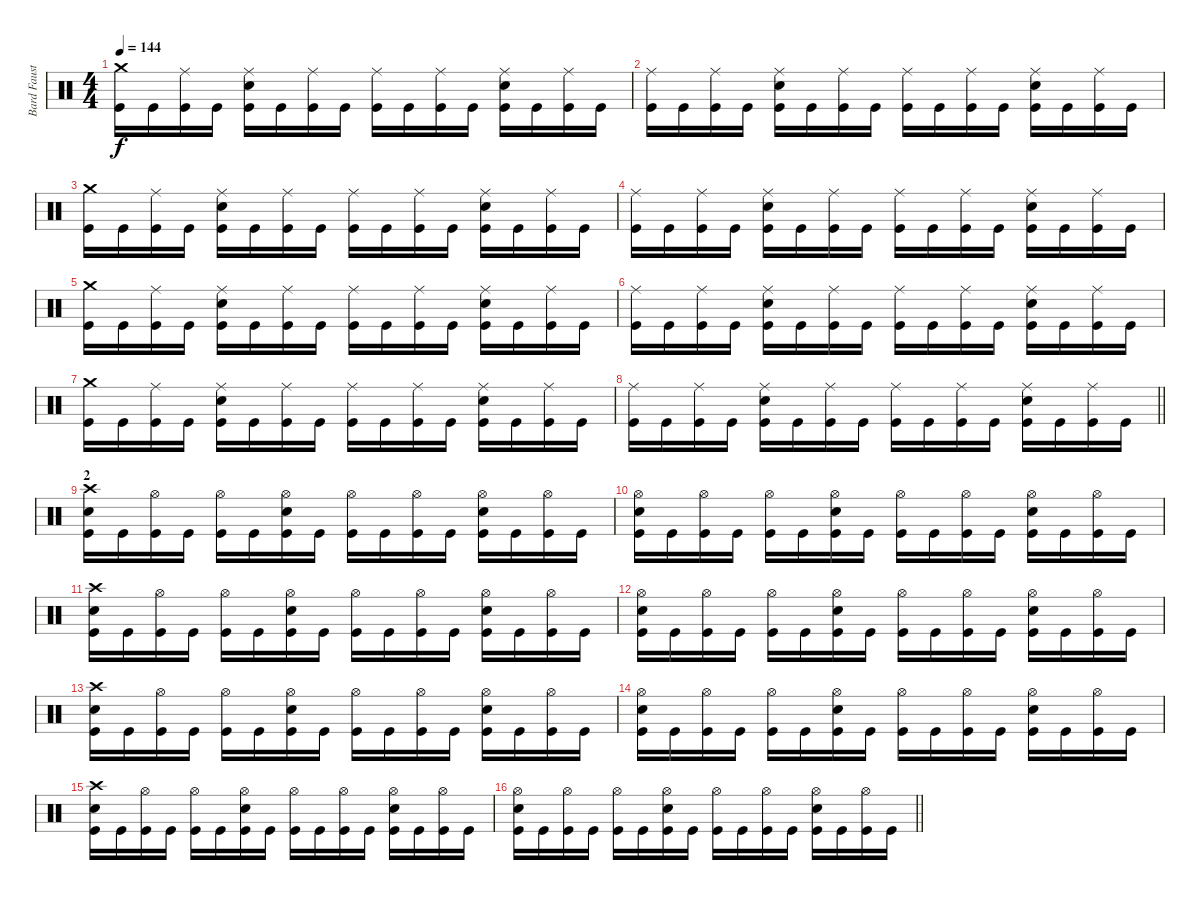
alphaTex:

\track ("Bard Faust" "Bard Faust") {instrument percussion}
\staff {score}
\articulation defaults
\ts (4 4)
\section ("" "")
\tempo 144
\clef neutral
\ks c
("Crash medium (hit)" "Kick (hit)").16{dy f} "Kick (hit)".16 ("Ride (middle)" "Kick (hit)").16 "Kick (hit)".16 ("Ride (middle)" "Snare (hit) 2" "Kick (hit)").16 "Kick (hit)".16 ("Ride (middle)" "Kick (hit)").16 "Kick (hit)".16 ("Ride (middle)" "Kick (hit)").16 "Kick (hit)".16 ("Ride (middle)" "Kick (hit)").16 "Kick (hit)".16 ("Ride (middle)" "Snare (hit) 2" "Kick (hit)").16 "Kick (hit)".16 ("Ride (middle)" "Kick (hit)").16 "Kick (hit)".16 |
("Ride (middle)" "Kick (hit)").16 "Kick (hit)".16 ("Ride (middle)" "Kick (hit)").16 "Kick (hit)".16 ("Ride (middle)" "Snare (hit) 2" "Kick (hit)").16 "Kick (hit)".16 ("Ride (middle)" "Kick (hit)").16 "Kick (hit)".16 ("Ride (middle)" "Kick (hit)").16 "Kick (hit)".16 ("Ride (middle)" "Kick (hit)").16 "Kick (hit)".16 ("Ride (middle)" "Snare (hit) 2" "Kick (hit)").16 "Kick (hit)".16 ("Ride (middle)" "Kick (hit)").16 "Kick (hit)".16 |
("Crash medium (hit)" "Kick (hit)").16 "Kick (hit)".16 ("Ride (middle)" "Kick (hit)").16 "Kick (hit)".16 ("Ride (middle)" "Snare (hit) 2" "Kick (hit)").16 "Kick (hit)".16 ("Ride (middle)" "Kick (hit)").16 "Kick (hit)".16 ("Ride (middle)" "Kick (hit)").16 "Kick (hit)".16 ("Ride (middle)" "Kick (hit)").16 "Kick (hit)".16 ("Ride (middle)" "Snare (hit) 2" "Kick (hit)").16 "Kick (hit)".16 ("Ride (middle)" "Kick (hit)").16 "Kick (hit)".16 |
("Ride (middle)" "Kick (hit)").16 "Kick (hit)".16 ("Ride (middle)" "Kick (hit)").16 "Kick (hit)".16 ("Ride (middle)" "Snare (hit) 2" "Kick (hit)").16 "Kick (hit)".16 ("Ride (middle)" "Kick (hit)").16 "Kick (hit)".16 ("Ride (middle)" "Kick (hit)").16 "Kick (hit)".16 ("Ride (middle)" "Kick (hit)").16 "Kick (hit)".16 ("Ride (middle)" "Snare (hit) 2" "Kick (hit)").16 "Kick (hit)".16 ("Ride (middle)" "Kick (hit)").16 "Kick (hit)".16 |
("Crash medium (hit)" "Kick (hit)").16 "Kick (hit)".16 ("Ride (middle)" "Kick (hit)").16 "Kick (hit)".16 ("Ride (middle)" "Snare (hit) 2" "Kick (hit)").16 "Kick (hit)".16 ("Ride (middle)" "Kick (hit)").16 "Kick (hit)".16 ("Ride (middle)" "Kick (hit)").16 "Kick (hit)".16 ("Ride (middle)" "Kick (hit)").16 "Kick (hit)".16 ("Ride (middle)" "Snare (hit) 2" "Kick (hit)").16 "Kick (hit)".16 ("Ride (middle)" "Kick (hit)").16 "Kick (hit)".16 |
("Ride (middle)" "Kick (hit)").16 "Kick (hit)".16 ("Ride (middle)" "Kick (hit)").16 "Kick (hit)".16 ("Ride (middle)" "Snare (hit) 2" "Kick (hit)").16 "Kick (hit)".16 ("Ride (middle)" "Kick (hit)").16 "Kick (hit)".16 ("Ride (middle)" "Kick (hit)").16 "Kick (hit)".16 ("Ride (middle)" "Kick (hit)").16 "Kick (hit)".16 ("Ride (middle)" "Snare (hit) 2" "Kick (hit)").16 "Kick (hit)".16 ("Ride (middle)" "Kick (hit)").16 "Kick (hit)".16 |
("Crash medium (hit)" "Kick (hit)").16 "Kick (hit)".16 ("Ride (middle)" "Kick (hit)").16 "Kick (hit)".16 ("Ride (middle)" "Snare (hit) 2" "Kick (hit)").16 "Kick (hit)".16 ("Ride (middle)" "Kick (hit)").16 "Kick (hit)".16 ("Ride (middle)" "Kick (hit)").16 "Kick (hit)".16 ("Ride (middle)" "Kick (hit)").16 "Kick (hit)".16 ("Ride (middle)" "Snare (hit) 2" "Kick (hit)").16 "Kick (hit)".16 ("Ride (middle)" "Kick (hit)").16 "Kick (hit)".16 |
\barLineRight lightlight
("Ride (middle)" "Kick (hit)").16 "Kick (hit)".16 ("Ride (middle)" "Kick (hit)").16 "Kick (hit)".16 ("Ride (middle)" "Snare (hit) 2" "Kick (hit)").16 "Kick (hit)".16 ("Ride (middle)" "Kick (hit)").16 "Kick (hit)".16 ("Ride (middle)" "Kick (hit)").16 "Kick (hit)".16 ("Ride (middle)" "Kick (hit)").16 "Kick (hit)".16 ("Ride (middle)" "Snare (hit) 2" "Kick (hit)").16 "Kick (hit)".16 ("Ride (middle)" "Kick (hit)").16 "Kick (hit)".16 |
\section ("" "2")
("Crash high (hit)" "Snare (hit) 2" "Kick (hit)").16 "Kick (hit)".16 ("Hi-Hat (open)" "Kick (hit)").16 "Kick (hit)".16 ("Hi-Hat (open)" "Kick (hit)").16 "Kick (hit)".16 ("Hi-Hat (open)" "Snare (hit) 2" "Kick (hit)").16 "Kick (hit)".16 ("Hi-Hat (open)" "Kick (hit)").16 "Kick (hit)".16 ("Hi-Hat (open)" "Kick (hit)").16 "Kick (hit)".16 ("Hi-Hat (open)" "Snare (hit) 2" "Kick (hit)").16 "Kick (hit)".16 ("Hi-Hat (open)" "Kick (hit)").16 "Kick (hit)".16 |
("Hi-Hat (open)" "Snare (hit) 2" "Kick (hit)").16 "Kick (hit)".16 ("Hi-Hat (open)" "Kick (hit)").16 "Kick (hit)".16 ("Hi-Hat (open)" "Kick (hit)").16 "Kick (hit)".16 ("Hi-Hat (open)" "Snare (hit) 2" "Kick (hit)").16 "Kick (hit)".16 ("Hi-Hat (open)" "Kick (hit)").16 "Kick (hit)".16 ("Hi-Hat (open)" "Kick (hit)").16 "Kick (hit)".16 ("Hi-Hat (open)" "Snare (hit) 2" "Kick (hit)").16 "Kick (hit)".16 ("Hi-Hat (open)" "Kick (hit)").16 "Kick (hit)".16 |
("Crash high (hit)" "Snare (hit) 2" "Kick (hit)").16 "Kick (hit)".16 ("Hi-Hat (open)" "Kick (hit)").16 "Kick (hit)".16 ("Hi-Hat (open)" "Kick (hit)").16 "Kick (hit)".16 ("Hi-Hat (open)" "Snare (hit) 2" "Kick (hit)").16 "Kick (hit)".16 ("Hi-Hat (open)" "Kick (hit)").16 "Kick (hit)".16 ("Hi-Hat (open)" "Kick (hit)").16 "Kick (hit)".16 ("Hi-Hat (open)" "Snare (hit) 2" "Kick (hit)").16 "Kick (hit)".16 ("Hi-Hat (open)" "Kick (hit)").16 "Kick (hit)".16 |
("Hi-Hat (open)" "Snare (hit) 2" "Kick (hit)").16 "Kick (hit)".16 ("Hi-Hat (open)" "Kick (hit)").16 "Kick (hit)".16 ("Hi-Hat (open)" "Kick (hit)").16 "Kick (hit)".16 ("Hi-Hat (open)" "Snare (hit) 2" "Kick (hit)").16 "Kick (hit)".16 ("Hi-Hat (open)" "Kick (hit)").16 "Kick (hit)".16 ("Hi-Hat (open)" "Kick (hit)").16 "Kick (hit)".16 ("Hi-Hat (open)" "Snare (hit) 2" "Kick (hit)").16 "Kick (hit)".16 ("Hi-Hat (open)" "Kick (hit)").16 "Kick (hit)".16 |
("Crash high (hit)" "Snare (hit) 2" "Kick (hit)").16 "Kick (hit)".16 ("Hi-Hat (open)" "Kick (hit)").16 "Kick (hit)".16 ("Hi-Hat (open)" "Kick (hit)").16 "Kick (hit)".16 ("Hi-Hat (open)" "Snare (hit) 2" "Kick (hit)").16 "Kick (hit)".16 ("Hi-Hat (open)" "Kick (hit)").16 "Kick (hit)".16 ("Hi-Hat (open)" "Kick (hit)").16 "Kick (hit)".16 ("Hi-Hat (open)" "Snare (hit) 2" "Kick (hit)").16 "Kick (hit)".16 ("Hi-Hat (open)" "Kick (hit)").16 "Kick (hit)".16 |
("Hi-Hat (open)" "Snare (hit) 2" "Kick (hit)").16 "Kick (hit)".16 ("Hi-Hat (open)" "Kick (hit)").16 "Kick (hit)".16 ("Hi-Hat (open)" "Kick (hit)").16 "Kick (hit)".16 ("Hi-Hat (open)" "Snare (hit) 2" "Kick (hit)").16 "Kick (hit)".16 ("Hi-Hat (open)" "Kick (hit)").16 "Kick (hit)".16 ("Hi-Hat (open)" "Kick (hit)").16 "Kick (hit)".16 ("Hi-Hat (open)" "Snare (hit) 2" "Kick (hit)").16 "Kick (hit)".16 ("Hi-Hat (open)" "Kick (hit)").16 "Kick (hit)".16 |
("Crash high (hit)" "Snare (hit) 2" "Kick (hit)").16 "Kick (hit)".16 ("Hi-Hat (open)" "Kick (hit)").16 "Kick (hit)".16 ("Hi-Hat (open)" "Kick (hit)").16 "Kick (hit)".16 ("Hi-Hat (open)" "Snare (hit) 2" "Kick (hit)").16 "Kick (hit)".16 ("Hi-Hat (open)" "Kick (hit)").16 "Kick (hit)".16 ("Hi-Hat (open)" "Kick (hit)").16 "Kick (hit)".16 ("Hi-Hat (open)" "Snare (hit) 2" "Kick (hit)").16 "Kick (hit)".16 ("Hi-Hat (open)" "Kick (hit)").16 "Kick (hit)".16 |
\barLineRight lightlight
("Hi-Hat (open)" "Snare (hit) 2" "Kick (hit)").16 "Kick (hit)".16 ("Hi-Hat (open)" "Kick (hit)").16 "Kick (hit)".16 ("Hi-Hat (open)" "Kick (hit)").16 "Kick (hit)".16 ("Hi-Hat (open)" "Snare (hit) 2" "Kick (hit)").16 "Kick (hit)".16 ("Hi-Hat (open)" "Kick (hit)").16 "Kick (hit)".16 ("Hi-Hat (open)" "Kick (hit)").16 "Kick (hit)".16 ("Hi-Hat (open)" "Snare (hit) 2" "Kick (hit)").16 "Kick (hit)".16 ("Hi-Hat (open)" "Kick (hit)").16 "Kick (hit)".16
